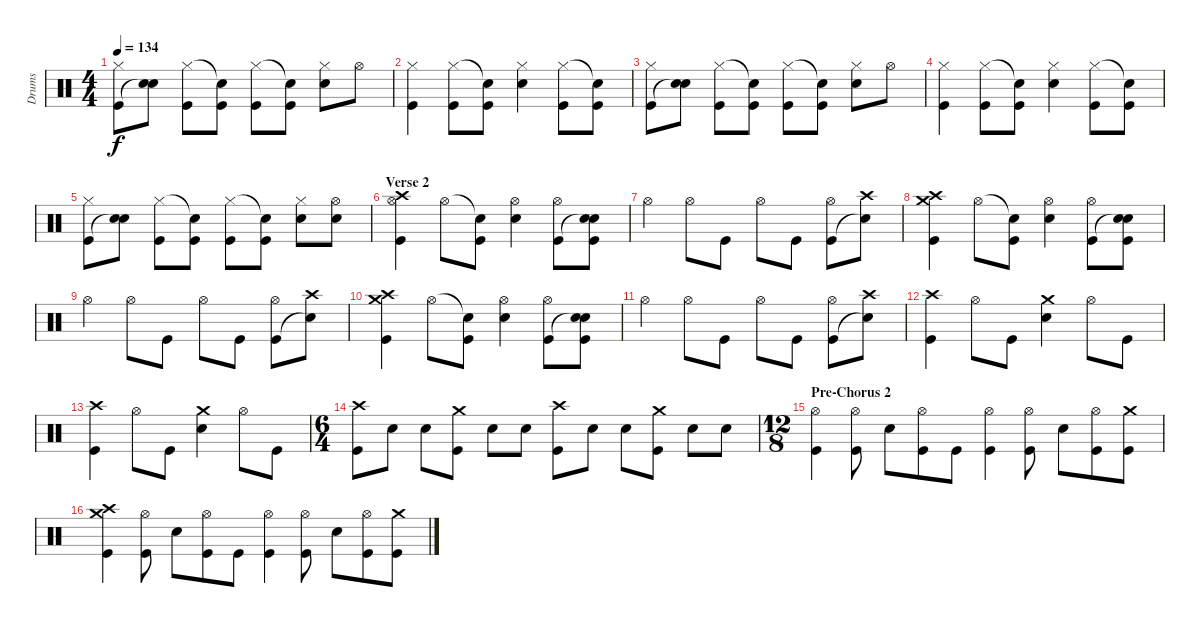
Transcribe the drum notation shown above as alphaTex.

\track ("Drums" "Drums") {instrument percussion}
\staff {score}
\articulation defaults
\ts (4 4)
\tempo 134
\clef neutral
\ks c
("Hi-Hat (closed)" "Kick (hit)").8{dy f} ("Electric Snare (hit)" "Snare (hit)"{t}).8 ("Hi-Hat (closed)" "Kick (hit)").8 ("Snare (hit)"{t} "Kick (hit)").8 ("Hi-Hat (closed)" "Kick (hit)").8 ("Snare (hit)"{t} "Kick (hit)").8 ("Electric Snare (hit)" "Hi-Hat (closed)").8 "Hi-Hat (open)".8 |
("Hi-Hat (closed)" "Kick (hit)").4 ("Hi-Hat (closed)" "Kick (hit)").8 ("Snare (hit)"{t} "Kick (hit)").8 ("Electric Snare (hit)" "Hi-Hat (closed)").4 ("Hi-Hat (closed)" "Kick (hit)").8 ("Snare (hit)"{t} "Kick (hit)").8 |
("Hi-Hat (closed)" "Kick (hit)").8 ("Electric Snare (hit)" "Snare (hit)"{t}).8 ("Hi-Hat (closed)" "Kick (hit)").8 ("Snare (hit)"{t} "Kick (hit)").8 ("Hi-Hat (closed)" "Kick (hit)").8 ("Snare (hit)"{t} "Kick (hit)").8 ("Electric Snare (hit)" "Hi-Hat (closed)").8 "Hi-Hat (open)".8 |
("Hi-Hat (closed)" "Kick (hit)").4 ("Hi-Hat (closed)" "Kick (hit)").8 ("Snare (hit)"{t} "Kick (hit)").8 ("Electric Snare (hit)" "Hi-Hat (closed)").4 ("Hi-Hat (closed)" "Kick (hit)").8 ("Snare (hit)"{t} "Kick (hit)").8 |
("Hi-Hat (closed)" "Kick (hit)").8 ("Electric Snare (hit)" "Snare (hit)"{t}).8 ("Hi-Hat (closed)" "Kick (hit)").8 ("Snare (hit)"{t} "Kick (hit)").8 ("Hi-Hat (closed)" "Kick (hit)").8 ("Snare (hit)"{t} "Kick (hit)").8 ("Electric Snare (hit)" "Hi-Hat (closed)").8 ("Electric Snare (hit)" "Hi-Hat (open)").8 |
\section ("" "Verse 2")
("Crash high (hit)" "Hi-Hat (open)" "Kick (hit)").4 "Hi-Hat (open)".8 ("Snare (hit)"{t} "Kick (hit)").8 ("Electric Snare (hit)" "Hi-Hat (open)").4 ("Hi-Hat (open)" "Kick (hit)").8 ("Electric Snare (hit)" "Snare (hit)"{t} "Kick (hit)").8 |
"Hi-Hat (open)".4 "Hi-Hat (open)".8 "Kick (hit)".8 "Hi-Hat (open)".8 "Kick (hit)".8 ("Hi-Hat (open)" "Kick (hit)").8 ("Crash high (hit)" "Snare (hit)"{t}).8 |
("Crash high (hit)" "Crash medium (hit)" "Kick (hit)").4 "Hi-Hat (open)".8 ("Snare (hit)"{t} "Kick (hit)").8 ("Electric Snare (hit)" "Hi-Hat (open)").4 ("Hi-Hat (open)" "Kick (hit)").8 ("Electric Snare (hit)" "Snare (hit)"{t} "Kick (hit)").8 |
"Hi-Hat (open)".4 "Hi-Hat (open)".8 "Kick (hit)".8 "Hi-Hat (open)".8 "Kick (hit)".8 ("Hi-Hat (open)" "Kick (hit)").8 ("Crash high (hit)" "Snare (hit)"{t}).8 |
("Crash high (hit)" "Crash medium (hit)" "Kick (hit)").4 "Hi-Hat (open)".8 ("Snare (hit)"{t} "Kick (hit)").8 ("Electric Snare (hit)" "Hi-Hat (open)").4 ("Hi-Hat (open)" "Kick (hit)").8 ("Electric Snare (hit)" "Snare (hit)"{t} "Kick (hit)").8 |
"Hi-Hat (open)".4 "Hi-Hat (open)".8 "Kick (hit)".8 "Hi-Hat (open)".8 "Kick (hit)".8 ("Hi-Hat (open)" "Kick (hit)").8 ("Crash high (hit)" "Snare (hit)"{t}).8 |
("Crash high (hit)" "Kick (hit)").4 "Hi-Hat (open)".8 "Kick (hit)".8 ("Electric Snare (hit)" "Crash medium (hit)").4 "Hi-Hat (open)".8 "Kick (hit)".8 |
("Crash high (hit)" "Kick (hit)").4 "Hi-Hat (open)".8 "Kick (hit)".8 ("Electric Snare (hit)" "Crash medium (hit)").4 "Hi-Hat (open)".8 "Kick (hit)".8 |
\ts (6 4)
("Crash high (hit)" "Kick (hit)").8 "Electric Snare (hit)".8 "Electric Snare (hit)".8 ("Crash medium (hit)" "Kick (hit)").8 "Electric Snare (hit)".8 "Electric Snare (hit)".8 ("Crash high (hit)" "Kick (hit)").8 "Electric Snare (hit)".8 "Electric Snare (hit)".8 ("Crash medium (hit)" "Kick (hit)").8 "Electric Snare (hit)".8 "Electric Snare (hit)".8 |
\ts (12 8)
\section ("" "Pre-Chorus 2")
("Hi-Hat (open)" "Kick (hit)").4 ("Hi-Hat (open)" "Kick (hit)").8 "Electric Snare (hit)".8 ("Hi-Hat (open)" "Kick (hit)").8 "Kick (hit)".8 ("Hi-Hat (open)" "Kick (hit)").4 ("Hi-Hat (open)" "Kick (hit)").8 "Electric Snare (hit)".8 ("Hi-Hat (open)" "Kick (hit)").8 ("Crash medium (hit)" "Kick (hit)").8 |
("Crash medium (hit)" "Crash high (hit)" "Kick (hit)").4 ("Hi-Hat (open)" "Kick (hit)").8 "Electric Snare (hit)".8 ("Hi-Hat (open)" "Kick (hit)").8 "Kick (hit)".8 ("Hi-Hat (open)" "Kick (hit)").4 ("Hi-Hat (open)" "Kick (hit)").8 "Electric Snare (hit)".8 ("Hi-Hat (open)" "Kick (hit)").8 ("Crash medium (hit)" "Kick (hit)").8
